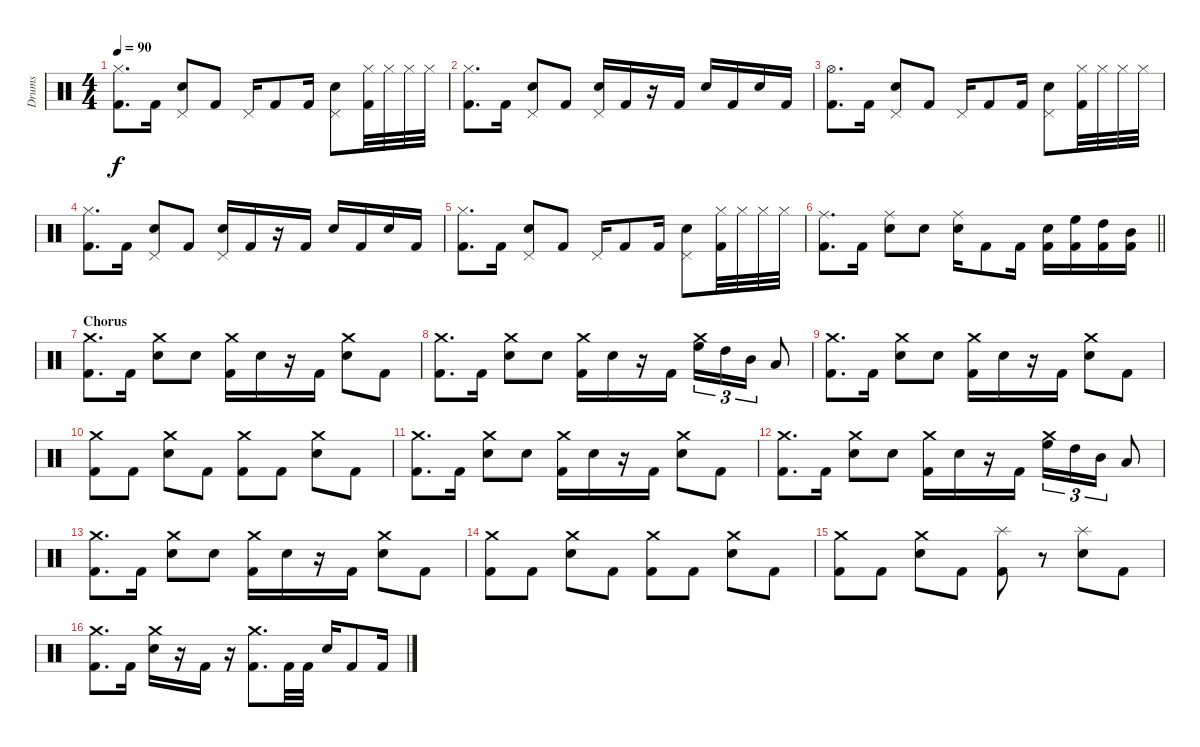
\track ("Drums" "Drums") {instrument percussion}
\staff {score}
\articulation defaults
\ts (4 4)
\tempo 90
\clef neutral
\ks c
("Hi-Hat (closed)" "Kick (hit) 2").8{d dy f} "Kick (hit) 2".16 ("Pedal Hi-Hat (hit)" "Electric Snare (hit)").8 "Kick (hit) 2".8 "Pedal Hi-Hat (hit)".16 "Kick (hit) 2".8 "Kick (hit) 2".16 ("Pedal Hi-Hat (hit)" "Electric Snare (hit)").8 ("Hi-Hat (closed)" "Kick (hit) 2").32 "Hi-Hat (closed)".32 "Hi-Hat (closed)".32 "Hi-Hat (closed)".32 |
("Hi-Hat (closed)" "Kick (hit) 2").8{d} "Kick (hit) 2".16 ("Pedal Hi-Hat (hit)" "Electric Snare (hit)").8 "Kick (hit) 2".8 ("Pedal Hi-Hat (hit)" "Electric Snare (hit)").16 "Kick (hit) 2".16 r.16 "Kick (hit) 2".16 "Electric Snare (hit)".16 "Kick (hit) 2".16 "Electric Snare (hit)".16 "Kick (hit) 2".16 |
("Hi-Hat (open)" "Kick (hit) 2").8{d} "Kick (hit) 2".16 ("Pedal Hi-Hat (hit)" "Electric Snare (hit)").8 "Kick (hit) 2".8 "Pedal Hi-Hat (hit)".16 "Kick (hit) 2".8 "Kick (hit) 2".16 ("Pedal Hi-Hat (hit)" "Electric Snare (hit)").8 ("Hi-Hat (closed)" "Kick (hit) 2").32 "Hi-Hat (closed)".32 "Hi-Hat (closed)".32 "Hi-Hat (closed)".32 |
("Hi-Hat (closed)" "Kick (hit) 2").8{d} "Kick (hit) 2".16 ("Pedal Hi-Hat (hit)" "Electric Snare (hit)").8 "Kick (hit) 2".8 ("Pedal Hi-Hat (hit)" "Electric Snare (hit)").16 "Kick (hit) 2".16 r.16 "Kick (hit) 2".16 "Electric Snare (hit)".16 "Kick (hit) 2".16 "Electric Snare (hit)".16 "Kick (hit) 2".16 |
("Hi-Hat (closed)" "Kick (hit) 2").8{d} "Kick (hit) 2".16 ("Pedal Hi-Hat (hit)" "Electric Snare (hit)").8 "Kick (hit) 2".8 "Pedal Hi-Hat (hit)".16 "Kick (hit) 2".8 "Kick (hit) 2".16 ("Pedal Hi-Hat (hit)" "Electric Snare (hit)").8 ("Hi-Hat (closed)" "Kick (hit) 2").32 "Hi-Hat (closed)".32 "Hi-Hat (closed)".32 "Hi-Hat (closed)".32 |
\barLineRight lightlight
("Ride (middle)" "Kick (hit) 2").8{d} "Kick (hit) 2".16 ("Ride (middle)" "Electric Snare (hit)").8 "Electric Snare (hit)".8 ("Ride (middle)" "Electric Snare (hit)").16 "Kick (hit) 2".8 "Kick (hit) 2".16 ("Electric Snare (hit)" "Kick (hit) 2").16 ("High Floor Tom (hit)" "Kick (hit) 2").16 ("High Tom (hit)" "Kick (hit) 2").16 ("Mid Tom (hit)" "Kick (hit) 2").16 |
\section ("" "Chorus")
("Crash medium (hit)" "Kick (hit) 2").8{d} "Kick (hit) 2".16 ("Crash medium (hit)" "Electric Snare (hit)").8 "Electric Snare (hit)".8 ("Crash medium (hit)" "Kick (hit) 2").16 "Electric Snare (hit)".16 r.16 "Kick (hit) 2".16 ("Crash medium (hit)" "Electric Snare (hit)").8 "Kick (hit) 2".8 |
("Crash medium (hit)" "Kick (hit) 2").8{d} "Kick (hit) 2".16 ("Crash medium (hit)" "Electric Snare (hit)").8 "Electric Snare (hit)".8 ("Crash medium (hit)" "Kick (hit) 2").16 "Electric Snare (hit)".16 r.16 "Kick (hit) 2".16 ("Crash medium (hit)" "High Floor Tom (hit)").16{tu (3 2)} "High Tom (hit)".16{tu (3 2)} "Mid Tom (hit)".16{tu (3 2)} "Low Tom (hit)".8 |
("Crash medium (hit)" "Kick (hit) 2").8{d} "Kick (hit) 2".16 ("Crash medium (hit)" "Electric Snare (hit)").8 "Electric Snare (hit)".8 ("Crash medium (hit)" "Kick (hit) 2").16 "Electric Snare (hit)".16 r.16 "Kick (hit) 2".16 ("Crash medium (hit)" "Electric Snare (hit)").8 "Kick (hit) 2".8 |
("Crash medium (hit)" "Kick (hit) 2").8 "Kick (hit) 2".8 ("Crash medium (hit)" "Electric Snare (hit)").8 "Kick (hit) 2".8 ("Crash medium (hit)" "Kick (hit) 2").8 "Kick (hit) 2".8 ("Crash medium (hit)" "Electric Snare (hit)").8 "Kick (hit) 2".8 |
("Crash medium (hit)" "Kick (hit) 2").8{d} "Kick (hit) 2".16 ("Crash medium (hit)" "Electric Snare (hit)").8 "Electric Snare (hit)".8 ("Crash medium (hit)" "Kick (hit) 2").16 "Electric Snare (hit)".16 r.16 "Kick (hit) 2".16 ("Crash medium (hit)" "Electric Snare (hit)").8 "Kick (hit) 2".8 |
("Crash medium (hit)" "Kick (hit) 2").8{d} "Kick (hit) 2".16 ("Crash medium (hit)" "Electric Snare (hit)").8 "Electric Snare (hit)".8 ("Crash medium (hit)" "Kick (hit) 2").16 "Electric Snare (hit)".16 r.16 "Kick (hit) 2".16 ("Crash medium (hit)" "High Floor Tom (hit)").16{tu (3 2)} "High Tom (hit)".16{tu (3 2)} "Mid Tom (hit)".16{tu (3 2)} "Low Tom (hit)".8 |
("Crash medium (hit)" "Kick (hit) 2").8{d} "Kick (hit) 2".16 ("Crash medium (hit)" "Electric Snare (hit)").8 "Electric Snare (hit)".8 ("Crash medium (hit)" "Kick (hit) 2").16 "Electric Snare (hit)".16 r.16 "Kick (hit) 2".16 ("Crash medium (hit)" "Electric Snare (hit)").8 "Kick (hit) 2".8 |
("Crash medium (hit)" "Kick (hit) 2").8 "Kick (hit) 2".8 ("Crash medium (hit)" "Electric Snare (hit)").8 "Kick (hit) 2".8 ("Crash medium (hit)" "Kick (hit) 2").8 "Kick (hit) 2".8 ("Crash medium (hit)" "Electric Snare (hit)").8 "Kick (hit) 2".8 |
("Crash medium (hit)" "Kick (hit) 2").8 "Kick (hit) 2".8 ("Crash medium (hit)" "Electric Snare (hit)").8 "Kick (hit) 2".8 ("Splash (hit)" "Kick (hit) 2").8 r.8 ("Splash (hit)" "Electric Snare (hit)").8 "Kick (hit) 2".8 |
("Crash medium (hit)" "Kick (hit) 2").8{d} "Kick (hit) 2".16 ("Crash medium (hit)" "Electric Snare (hit)").16 r.16 "Kick (hit) 2".16 r.16 ("Crash medium (hit)" "Kick (hit) 2").8{d} "Kick (hit) 2".32 "Kick (hit) 2".32 "Electric Snare (hit)".16 "Kick (hit) 2".8 "Kick (hit) 2".16
